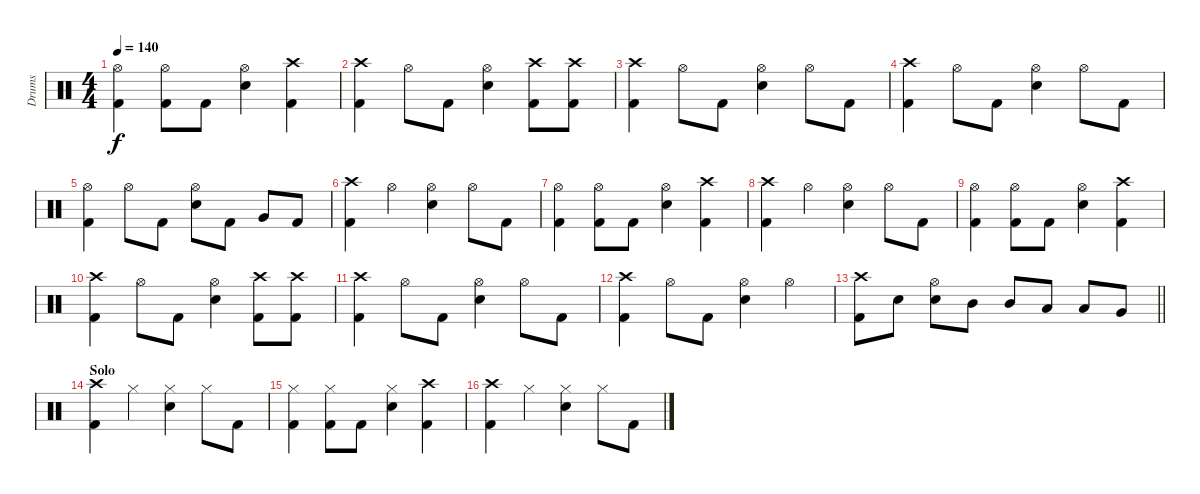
\track ("Drums" "Drums") {instrument percussion}
\staff {score}
\articulation defaults
\ts (4 4)
\tempo 140
\clef neutral
\ks c
("Hi-Hat (open)" "Kick (hit) 2").4{dy f} ("Hi-Hat (open)" "Kick (hit) 2").8 "Kick (hit) 2".8 ("Hi-Hat (open)" "Electric Snare (hit)").4 ("Crash high (hit)" "Kick (hit) 2").4 |
("Crash high (hit)" "Kick (hit) 2").4 "Hi-Hat (open)".8 "Kick (hit) 2".8 ("Hi-Hat (open)" "Electric Snare (hit)").4 ("Crash high (hit)" "Kick (hit) 2").8 ("Crash high (hit)" "Kick (hit) 2").8 |
("Crash high (hit)" "Kick (hit) 2").4 "Hi-Hat (open)".8 "Kick (hit) 2".8 ("Hi-Hat (open)" "Electric Snare (hit)").4 "Hi-Hat (open)".8 "Kick (hit) 2".8 |
("Crash high (hit)" "Kick (hit) 2").4 "Hi-Hat (open)".8 "Kick (hit) 2".8 ("Hi-Hat (open)" "Electric Snare (hit)").4 "Hi-Hat (open)".8 "Kick (hit) 2".8 |
("Hi-Hat (open)" "Kick (hit) 2").4 "Hi-Hat (open)".8 "Kick (hit) 2".8 ("Hi-Hat (open)" "Electric Snare (hit)").8 "Kick (hit) 2".8 "Very Low Tom (hit)".8 "Kick (hit) 2".8 |
("Crash high (hit)" "Kick (hit) 2").4 "Hi-Hat (open)".4 ("Hi-Hat (open)" "Electric Snare (hit)").4 "Hi-Hat (open)".8 "Kick (hit) 2".8 |
("Hi-Hat (open)" "Kick (hit) 2").4 ("Hi-Hat (open)" "Kick (hit) 2").8 "Kick (hit) 2".8 ("Hi-Hat (open)" "Electric Snare (hit)").4 ("Crash high (hit)" "Kick (hit) 2").4 |
("Crash high (hit)" "Kick (hit) 2").4 "Hi-Hat (open)".4 ("Hi-Hat (open)" "Electric Snare (hit)").4 "Hi-Hat (open)".8 "Kick (hit) 2".8 |
("Hi-Hat (open)" "Kick (hit) 2").4 ("Hi-Hat (open)" "Kick (hit) 2").8 "Kick (hit) 2".8 ("Hi-Hat (open)" "Electric Snare (hit)").4 ("Crash high (hit)" "Kick (hit) 2").4 |
("Crash high (hit)" "Kick (hit) 2").4 "Hi-Hat (open)".8 "Kick (hit) 2".8 ("Hi-Hat (open)" "Electric Snare (hit)").4 ("Crash high (hit)" "Kick (hit) 2").8 ("Crash high (hit)" "Kick (hit) 2").8 |
("Crash high (hit)" "Kick (hit) 2").4 "Hi-Hat (open)".8 "Kick (hit) 2".8 ("Hi-Hat (open)" "Electric Snare (hit)").4 "Hi-Hat (open)".8 "Kick (hit) 2".8 |
("Crash high (hit)" "Kick (hit) 2").4 "Hi-Hat (open)".8 "Kick (hit) 2".8 ("Hi-Hat (open)" "Electric Snare (hit)").4 "Hi-Hat (open)".4 |
\barLineRight lightlight
("Crash high (hit)" "Kick (hit) 2").8 "Electric Snare (hit)".8 ("Hi-Hat (open)" "Electric Snare (hit)").8 "Mid Tom (hit)".8 "Mid Tom (hit)".8 "Low Tom (hit)".8 "Low Tom (hit)".8 "Very Low Tom (hit)".8 |
\section ("" "Solo")
("Crash high (hit)" "Kick (hit) 2").4 "Hi-Hat (closed)".4 ("Hi-Hat (closed)" "Electric Snare (hit)").4 "Hi-Hat (closed)".8 "Kick (hit) 2".8 |
("Hi-Hat (closed)" "Kick (hit) 2").4 ("Hi-Hat (closed)" "Kick (hit) 2").8 "Kick (hit) 2".8 ("Hi-Hat (closed)" "Electric Snare (hit)").4 ("Crash high (hit)" "Kick (hit) 2").4 |
("Crash high (hit)" "Kick (hit) 2").4 "Hi-Hat (closed)".4 ("Hi-Hat (closed)" "Electric Snare (hit)").4 "Hi-Hat (closed)".8 "Kick (hit) 2".8
